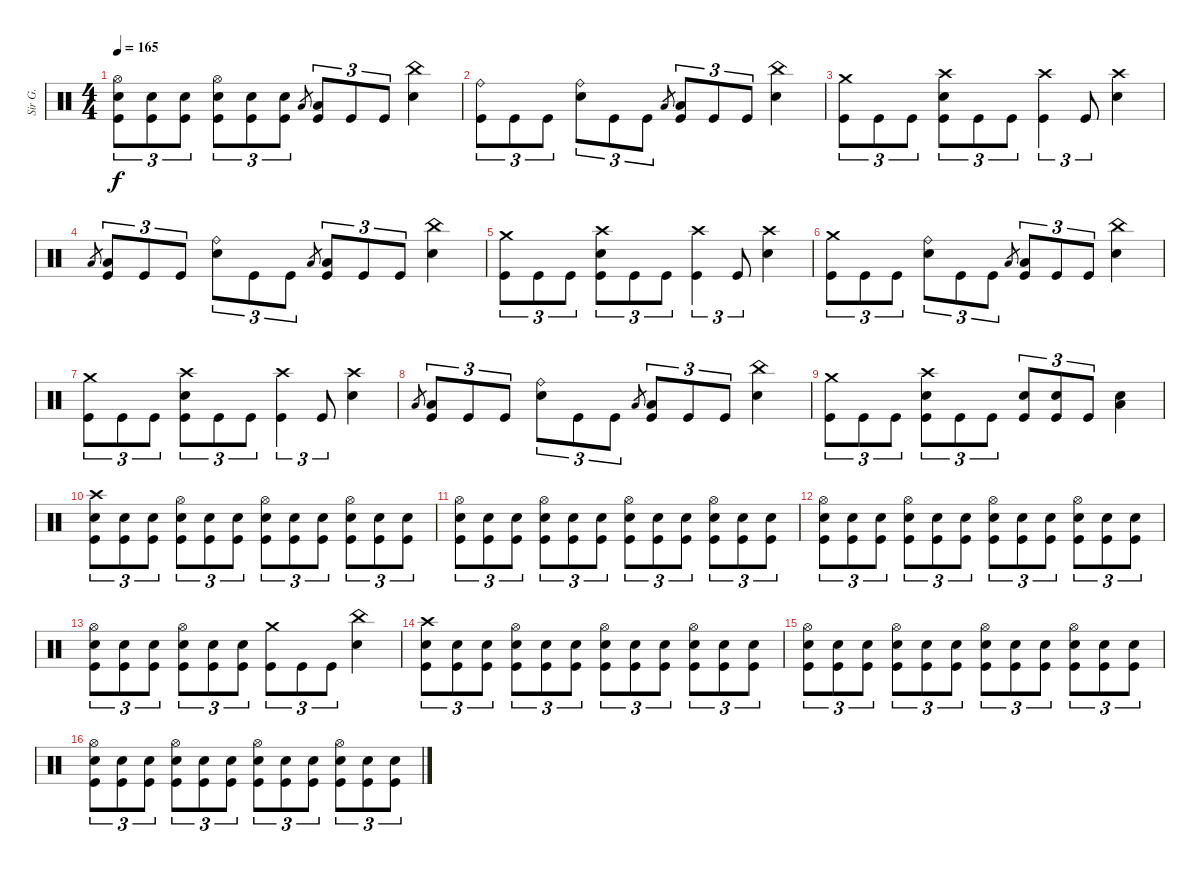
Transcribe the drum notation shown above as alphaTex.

\track ("Sir G." "Sir G.") {instrument percussion}
\staff {score}
\articulation defaults
\ts (4 4)
\tempo 165
\clef neutral
\ks c
("Hi-Hat (open)" "Electric Snare (hit)" "Kick (hit)").8{tu (3 2) dy f} ("Electric Snare (hit)" "Kick (hit)").8{tu (3 2)} ("Electric Snare (hit)" "Kick (hit)").8{tu (3 2)} ("Hi-Hat (open)" "Electric Snare (hit)" "Kick (hit)").8{tu (3 2)} ("Electric Snare (hit)" "Kick (hit)").8{tu (3 2)} ("Electric Snare (hit)" "Kick (hit)").8{tu (3 2)} "Low Tom (hit)".8{gr} ("Low Tom (hit)" "Kick (hit)").8{tu (3 2)} "Kick (hit)".8{tu (3 2)} "Kick (hit)".8{tu (3 2)} ("China (hit)" "Electric Snare (hit)").4 |
("Ride (bell)" "Kick (hit)").8{tu (3 2)} "Kick (hit)".8{tu (3 2)} "Kick (hit)".8{tu (3 2)} ("Ride (bell)" "Electric Snare (hit)").8{tu (3 2)} "Kick (hit)".8{tu (3 2)} "Kick (hit)".8{tu (3 2)} "Low Tom (hit)".8{gr} ("Low Tom (hit)" "Kick (hit)").8{tu (3 2)} "Kick (hit)".8{tu (3 2)} "Kick (hit)".8{tu (3 2)} ("China (hit)" "Electric Snare (hit)").4 |
("Crash medium (hit)" "Kick (hit)").8{tu (3 2)} "Kick (hit)".8{tu (3 2)} "Kick (hit)".8{tu (3 2)} ("Crash high (hit)" "Electric Snare (hit)" "Kick (hit)").8{tu (3 2)} "Kick (hit)".8{tu (3 2)} "Kick (hit)".8{tu (3 2)} ("Crash high (hit)" "Kick (hit)").4{tu (3 2)} "Kick (hit)".8{tu (3 2)} ("Crash high (hit)" "Electric Snare (hit)").4 |
"Low Tom (hit)".8{gr} ("Low Tom (hit)" "Kick (hit)").8{tu (3 2)} "Kick (hit)".8{tu (3 2)} "Kick (hit)".8{tu (3 2)} ("Ride (bell)" "Electric Snare (hit)").8{tu (3 2)} "Kick (hit)".8{tu (3 2)} "Kick (hit)".8{tu (3 2)} "Low Tom (hit)".8{gr} ("Low Tom (hit)" "Kick (hit)").8{tu (3 2)} "Kick (hit)".8{tu (3 2)} "Kick (hit)".8{tu (3 2)} ("China (hit)" "Electric Snare (hit)").4 |
("Crash medium (hit)" "Kick (hit)").8{tu (3 2)} "Kick (hit)".8{tu (3 2)} "Kick (hit)".8{tu (3 2)} ("Crash high (hit)" "Electric Snare (hit)" "Kick (hit)").8{tu (3 2)} "Kick (hit)".8{tu (3 2)} "Kick (hit)".8{tu (3 2)} ("Crash high (hit)" "Kick (hit)").4{tu (3 2)} "Kick (hit)".8{tu (3 2)} ("Crash high (hit)" "Electric Snare (hit)").4 |
("Crash medium (hit)" "Kick (hit)").8{tu (3 2)} "Kick (hit)".8{tu (3 2)} "Kick (hit)".8{tu (3 2)} ("Ride (bell)" "Electric Snare (hit)").8{tu (3 2)} "Kick (hit)".8{tu (3 2)} "Kick (hit)".8{tu (3 2)} "Low Tom (hit)".8{gr} ("Low Tom (hit)" "Kick (hit)").8{tu (3 2)} "Kick (hit)".8{tu (3 2)} "Kick (hit)".8{tu (3 2)} ("China (hit)" "Electric Snare (hit)").4 |
("Crash medium (hit)" "Kick (hit)").8{tu (3 2)} "Kick (hit)".8{tu (3 2)} "Kick (hit)".8{tu (3 2)} ("Crash high (hit)" "Electric Snare (hit)" "Kick (hit)").8{tu (3 2)} "Kick (hit)".8{tu (3 2)} "Kick (hit)".8{tu (3 2)} ("Crash high (hit)" "Kick (hit)").4{tu (3 2)} "Kick (hit)".8{tu (3 2)} ("Crash high (hit)" "Electric Snare (hit)").4 |
"Low Tom (hit)".8{gr} ("Low Tom (hit)" "Kick (hit)").8{tu (3 2)} "Kick (hit)".8{tu (3 2)} "Kick (hit)".8{tu (3 2)} ("Ride (bell)" "Electric Snare (hit)").8{tu (3 2)} "Kick (hit)".8{tu (3 2)} "Kick (hit)".8{tu (3 2)} "Low Tom (hit)".8{gr} ("Low Tom (hit)" "Kick (hit)").8{tu (3 2)} "Kick (hit)".8{tu (3 2)} "Kick (hit)".8{tu (3 2)} ("China (hit)" "Electric Snare (hit)").4 |
("Crash medium (hit)" "Kick (hit)").8{tu (3 2)} "Kick (hit)".8{tu (3 2)} "Kick (hit)".8{tu (3 2)} ("Crash high (hit)" "Electric Snare (hit)" "Kick (hit)").8{tu (3 2)} "Kick (hit)".8{tu (3 2)} "Kick (hit)".8{tu (3 2)} ("Electric Snare (hit)" "Kick (hit)").8{tu (3 2)} ("Electric Snare (hit)" "Kick (hit)").8{tu (3 2)} "Kick (hit)".8{tu (3 2)} ("Electric Snare (hit)" "Low Tom (hit)").4 |
("Crash high (hit)" "Electric Snare (hit)" "Kick (hit)").8{tu (3 2)} ("Electric Snare (hit)" "Kick (hit)").8{tu (3 2)} ("Electric Snare (hit)" "Kick (hit)").8{tu (3 2)} ("Hi-Hat (open)" "Electric Snare (hit)" "Kick (hit)").8{tu (3 2)} ("Electric Snare (hit)" "Kick (hit)").8{tu (3 2)} ("Electric Snare (hit)" "Kick (hit)").8{tu (3 2)} ("Hi-Hat (open)" "Electric Snare (hit)" "Kick (hit)").8{tu (3 2)} ("Electric Snare (hit)" "Kick (hit)").8{tu (3 2)} ("Electric Snare (hit)" "Kick (hit)").8{tu (3 2)} ("Hi-Hat (open)" "Electric Snare (hit)" "Kick (hit)").8{tu (3 2)} ("Electric Snare (hit)" "Kick (hit)").8{tu (3 2)} ("Electric Snare (hit)" "Kick (hit)").8{tu (3 2)} |
("Hi-Hat (open)" "Electric Snare (hit)" "Kick (hit)").8{tu (3 2)} ("Electric Snare (hit)" "Kick (hit)").8{tu (3 2)} ("Electric Snare (hit)" "Kick (hit)").8{tu (3 2)} ("Hi-Hat (open)" "Electric Snare (hit)" "Kick (hit)").8{tu (3 2)} ("Electric Snare (hit)" "Kick (hit)").8{tu (3 2)} ("Electric Snare (hit)" "Kick (hit)").8{tu (3 2)} ("Hi-Hat (open)" "Electric Snare (hit)" "Kick (hit)").8{tu (3 2)} ("Electric Snare (hit)" "Kick (hit)").8{tu (3 2)} ("Electric Snare (hit)" "Kick (hit)").8{tu (3 2)} ("Hi-Hat (open)" "Electric Snare (hit)" "Kick (hit)").8{tu (3 2)} ("Electric Snare (hit)" "Kick (hit)").8{tu (3 2)} ("Electric Snare (hit)" "Kick (hit)").8{tu (3 2)} |
("Hi-Hat (open)" "Electric Snare (hit)" "Kick (hit)").8{tu (3 2)} ("Electric Snare (hit)" "Kick (hit)").8{tu (3 2)} ("Electric Snare (hit)" "Kick (hit)").8{tu (3 2)} ("Hi-Hat (open)" "Electric Snare (hit)" "Kick (hit)").8{tu (3 2)} ("Electric Snare (hit)" "Kick (hit)").8{tu (3 2)} ("Electric Snare (hit)" "Kick (hit)").8{tu (3 2)} ("Hi-Hat (open)" "Electric Snare (hit)" "Kick (hit)").8{tu (3 2)} ("Electric Snare (hit)" "Kick (hit)").8{tu (3 2)} ("Electric Snare (hit)" "Kick (hit)").8{tu (3 2)} ("Hi-Hat (open)" "Electric Snare (hit)" "Kick (hit)").8{tu (3 2)} ("Electric Snare (hit)" "Kick (hit)").8{tu (3 2)} ("Electric Snare (hit)" "Kick (hit)").8{tu (3 2)} |
("Hi-Hat (open)" "Electric Snare (hit)" "Kick (hit)").8{tu (3 2)} ("Electric Snare (hit)" "Kick (hit)").8{tu (3 2)} ("Electric Snare (hit)" "Kick (hit)").8{tu (3 2)} ("Hi-Hat (open)" "Electric Snare (hit)" "Kick (hit)").8{tu (3 2)} ("Electric Snare (hit)" "Kick (hit)").8{tu (3 2)} ("Electric Snare (hit)" "Kick (hit)").8{tu (3 2)} ("Crash medium (hit)" "Kick (hit)").8{tu (3 2)} "Kick (hit)".8{tu (3 2)} "Kick (hit)".8{tu (3 2)} ("China (hit)" "Electric Snare (hit)").4 |
("Crash high (hit)" "Electric Snare (hit)" "Kick (hit)").8{tu (3 2)} ("Electric Snare (hit)" "Kick (hit)").8{tu (3 2)} ("Electric Snare (hit)" "Kick (hit)").8{tu (3 2)} ("Hi-Hat (open)" "Electric Snare (hit)" "Kick (hit)").8{tu (3 2)} ("Electric Snare (hit)" "Kick (hit)").8{tu (3 2)} ("Electric Snare (hit)" "Kick (hit)").8{tu (3 2)} ("Hi-Hat (open)" "Electric Snare (hit)" "Kick (hit)").8{tu (3 2)} ("Electric Snare (hit)" "Kick (hit)").8{tu (3 2)} ("Electric Snare (hit)" "Kick (hit)").8{tu (3 2)} ("Hi-Hat (open)" "Electric Snare (hit)" "Kick (hit)").8{tu (3 2)} ("Electric Snare (hit)" "Kick (hit)").8{tu (3 2)} ("Electric Snare (hit)" "Kick (hit)").8{tu (3 2)} |
("Hi-Hat (open)" "Electric Snare (hit)" "Kick (hit)").8{tu (3 2)} ("Electric Snare (hit)" "Kick (hit)").8{tu (3 2)} ("Electric Snare (hit)" "Kick (hit)").8{tu (3 2)} ("Hi-Hat (open)" "Electric Snare (hit)" "Kick (hit)").8{tu (3 2)} ("Electric Snare (hit)" "Kick (hit)").8{tu (3 2)} ("Electric Snare (hit)" "Kick (hit)").8{tu (3 2)} ("Hi-Hat (open)" "Electric Snare (hit)" "Kick (hit)").8{tu (3 2)} ("Electric Snare (hit)" "Kick (hit)").8{tu (3 2)} ("Electric Snare (hit)" "Kick (hit)").8{tu (3 2)} ("Hi-Hat (open)" "Electric Snare (hit)" "Kick (hit)").8{tu (3 2)} ("Electric Snare (hit)" "Kick (hit)").8{tu (3 2)} ("Electric Snare (hit)" "Kick (hit)").8{tu (3 2)} |
("Hi-Hat (open)" "Electric Snare (hit)" "Kick (hit)").8{tu (3 2)} ("Electric Snare (hit)" "Kick (hit)").8{tu (3 2)} ("Electric Snare (hit)" "Kick (hit)").8{tu (3 2)} ("Hi-Hat (open)" "Electric Snare (hit)" "Kick (hit)").8{tu (3 2)} ("Electric Snare (hit)" "Kick (hit)").8{tu (3 2)} ("Electric Snare (hit)" "Kick (hit)").8{tu (3 2)} ("Hi-Hat (open)" "Electric Snare (hit)" "Kick (hit)").8{tu (3 2)} ("Electric Snare (hit)" "Kick (hit)").8{tu (3 2)} ("Electric Snare (hit)" "Kick (hit)").8{tu (3 2)} ("Hi-Hat (open)" "Electric Snare (hit)" "Kick (hit)").8{tu (3 2)} ("Electric Snare (hit)" "Kick (hit)").8{tu (3 2)} ("Electric Snare (hit)" "Kick (hit)").8{tu (3 2)}
